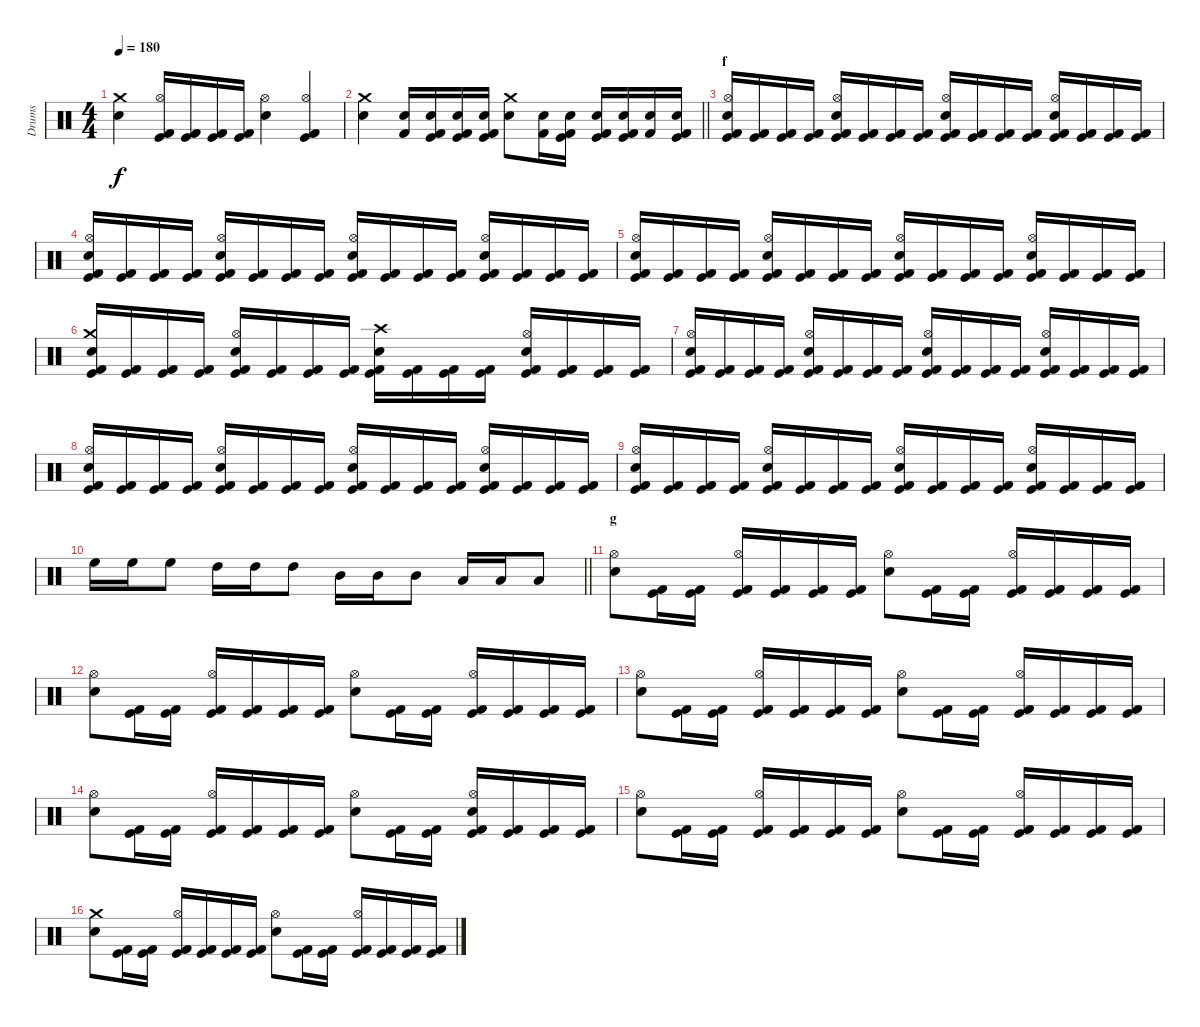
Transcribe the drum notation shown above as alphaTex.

\track ("Drums" "Drums") {instrument percussion}
\staff {score}
\articulation defaults
\ts (4 4)
\tempo 180
\clef neutral
\ks c
("Electric Snare (hit)" "Crash medium (hit)").4{dy f} ("Kick (hit) 2" "Hi-Hat (open)" "Kick (hit)").16 ("Kick (hit) 2" "Kick (hit)").16 ("Kick (hit) 2" "Kick (hit)").16 ("Kick (hit) 2" "Kick (hit)").16 ("Electric Snare (hit)" "Hi-Hat (open)").4 ("Kick (hit) 2" "Hi-Hat (open)" "Kick (hit)").4 |
\barLineRight lightlight
("Electric Snare (hit)" "Crash medium (hit)").4 ("Kick (hit) 2" "Electric Snare (hit)").16 ("Kick (hit) 2" "Electric Snare (hit)" "Kick (hit)").16 ("Kick (hit) 2" "Electric Snare (hit)" "Kick (hit)").16 ("Kick (hit) 2" "Electric Snare (hit)" "Kick (hit)").16 ("Electric Snare (hit)" "Crash medium (hit)").8 ("Kick (hit) 2" "Electric Snare (hit)").16 ("Kick (hit) 2" "Electric Snare (hit)" "Kick (hit)").16 ("Kick (hit) 2" "Electric Snare (hit)" "Kick (hit)").16 ("Kick (hit) 2" "Electric Snare (hit)" "Kick (hit)").16 ("Kick (hit) 2" "Electric Snare (hit)").16 ("Kick (hit) 2" "Electric Snare (hit)" "Kick (hit)").16 |
\section ("" "f")
("Kick (hit)" "Kick (hit) 2" "Hi-Hat (open)" "Electric Snare (hit)").16 ("Kick (hit)" "Kick (hit) 2").16 ("Kick (hit)" "Kick (hit) 2").16 ("Kick (hit)" "Kick (hit) 2").16 ("Kick (hit)" "Kick (hit) 2" "Hi-Hat (open)" "Electric Snare (hit)").16 ("Kick (hit)" "Kick (hit) 2").16 ("Kick (hit)" "Kick (hit) 2").16 ("Kick (hit)" "Kick (hit) 2").16 ("Kick (hit)" "Kick (hit) 2" "Hi-Hat (open)" "Electric Snare (hit)").16 ("Kick (hit)" "Kick (hit) 2").16 ("Kick (hit)" "Kick (hit) 2").16 ("Kick (hit)" "Kick (hit) 2").16 ("Kick (hit)" "Kick (hit) 2" "Hi-Hat (open)" "Electric Snare (hit)").16 ("Kick (hit)" "Kick (hit) 2").16 ("Kick (hit)" "Kick (hit) 2").16 ("Kick (hit)" "Kick (hit) 2").16 |
("Kick (hit)" "Kick (hit) 2" "Hi-Hat (open)" "Electric Snare (hit)").16 ("Kick (hit)" "Kick (hit) 2").16 ("Kick (hit)" "Kick (hit) 2").16 ("Kick (hit)" "Kick (hit) 2").16 ("Kick (hit)" "Kick (hit) 2" "Hi-Hat (open)" "Electric Snare (hit)").16 ("Kick (hit)" "Kick (hit) 2").16 ("Kick (hit)" "Kick (hit) 2").16 ("Kick (hit)" "Kick (hit) 2").16 ("Kick (hit)" "Kick (hit) 2" "Hi-Hat (open)" "Electric Snare (hit)").16 ("Kick (hit)" "Kick (hit) 2").16 ("Kick (hit)" "Kick (hit) 2").16 ("Kick (hit)" "Kick (hit) 2").16 ("Kick (hit)" "Kick (hit) 2" "Hi-Hat (open)" "Electric Snare (hit)").16 ("Kick (hit)" "Kick (hit) 2").16 ("Kick (hit)" "Kick (hit) 2").16 ("Kick (hit)" "Kick (hit) 2").16 |
("Kick (hit)" "Kick (hit) 2" "Hi-Hat (open)" "Electric Snare (hit)").16 ("Kick (hit)" "Kick (hit) 2").16 ("Kick (hit)" "Kick (hit) 2").16 ("Kick (hit)" "Kick (hit) 2").16 ("Kick (hit)" "Kick (hit) 2" "Hi-Hat (open)" "Electric Snare (hit)").16 ("Kick (hit)" "Kick (hit) 2").16 ("Kick (hit)" "Kick (hit) 2").16 ("Kick (hit)" "Kick (hit) 2").16 ("Kick (hit)" "Kick (hit) 2" "Hi-Hat (open)" "Electric Snare (hit)").16 ("Kick (hit)" "Kick (hit) 2").16 ("Kick (hit)" "Kick (hit) 2").16 ("Kick (hit)" "Kick (hit) 2").16 ("Kick (hit)" "Kick (hit) 2" "Hi-Hat (open)" "Electric Snare (hit)").16 ("Kick (hit)" "Kick (hit) 2").16 ("Kick (hit)" "Kick (hit) 2").16 ("Kick (hit)" "Kick (hit) 2").16 |
("Kick (hit)" "Kick (hit) 2" "Crash medium (hit)" "Electric Snare (hit)").16 ("Kick (hit)" "Kick (hit) 2").16 ("Kick (hit)" "Kick (hit) 2").16 ("Kick (hit)" "Kick (hit) 2").16 ("Kick (hit)" "Kick (hit) 2" "Hi-Hat (open)" "Electric Snare (hit)").16 ("Kick (hit)" "Kick (hit) 2").16 ("Kick (hit)" "Kick (hit) 2").16 ("Kick (hit)" "Kick (hit) 2").16 ("Kick (hit)" "Kick (hit) 2" "Crash high (hit)" "Electric Snare (hit)").16 ("Kick (hit)" "Kick (hit) 2").16 ("Kick (hit)" "Kick (hit) 2").16 ("Kick (hit)" "Kick (hit) 2").16 ("Kick (hit)" "Kick (hit) 2" "Hi-Hat (open)" "Electric Snare (hit)").16 ("Kick (hit)" "Kick (hit) 2").16 ("Kick (hit)" "Kick (hit) 2").16 ("Kick (hit)" "Kick (hit) 2").16 |
("Kick (hit)" "Kick (hit) 2" "Hi-Hat (open)" "Electric Snare (hit)").16 ("Kick (hit)" "Kick (hit) 2").16 ("Kick (hit)" "Kick (hit) 2").16 ("Kick (hit)" "Kick (hit) 2").16 ("Kick (hit)" "Kick (hit) 2" "Hi-Hat (open)" "Electric Snare (hit)").16 ("Kick (hit)" "Kick (hit) 2").16 ("Kick (hit)" "Kick (hit) 2").16 ("Kick (hit)" "Kick (hit) 2").16 ("Kick (hit)" "Kick (hit) 2" "Hi-Hat (open)" "Electric Snare (hit)").16 ("Kick (hit)" "Kick (hit) 2").16 ("Kick (hit)" "Kick (hit) 2").16 ("Kick (hit)" "Kick (hit) 2").16 ("Kick (hit)" "Kick (hit) 2" "Hi-Hat (open)" "Electric Snare (hit)").16 ("Kick (hit)" "Kick (hit) 2").16 ("Kick (hit)" "Kick (hit) 2").16 ("Kick (hit)" "Kick (hit) 2").16 |
("Kick (hit)" "Kick (hit) 2" "Hi-Hat (open)" "Electric Snare (hit)").16 ("Kick (hit)" "Kick (hit) 2").16 ("Kick (hit)" "Kick (hit) 2").16 ("Kick (hit)" "Kick (hit) 2").16 ("Kick (hit)" "Kick (hit) 2" "Hi-Hat (open)" "Electric Snare (hit)").16 ("Kick (hit)" "Kick (hit) 2").16 ("Kick (hit)" "Kick (hit) 2").16 ("Kick (hit)" "Kick (hit) 2").16 ("Kick (hit)" "Kick (hit) 2" "Hi-Hat (open)" "Electric Snare (hit)").16 ("Kick (hit)" "Kick (hit) 2").16 ("Kick (hit)" "Kick (hit) 2").16 ("Kick (hit)" "Kick (hit) 2").16 ("Kick (hit)" "Kick (hit) 2" "Hi-Hat (open)" "Electric Snare (hit)").16 ("Kick (hit)" "Kick (hit) 2").16 ("Kick (hit)" "Kick (hit) 2").16 ("Kick (hit)" "Kick (hit) 2").16 |
("Kick (hit)" "Kick (hit) 2" "Hi-Hat (open)" "Electric Snare (hit)").16 ("Kick (hit)" "Kick (hit) 2").16 ("Kick (hit)" "Kick (hit) 2").16 ("Kick (hit)" "Kick (hit) 2").16 ("Kick (hit)" "Kick (hit) 2" "Hi-Hat (open)" "Electric Snare (hit)").16 ("Kick (hit)" "Kick (hit) 2").16 ("Kick (hit)" "Kick (hit) 2").16 ("Kick (hit)" "Kick (hit) 2").16 ("Kick (hit)" "Kick (hit) 2" "Hi-Hat (open)" "Electric Snare (hit)").16 ("Kick (hit)" "Kick (hit) 2").16 ("Kick (hit)" "Kick (hit) 2").16 ("Kick (hit)" "Kick (hit) 2").16 ("Kick (hit)" "Kick (hit) 2" "Hi-Hat (open)" "Electric Snare (hit)").16 ("Kick (hit)" "Kick (hit) 2").16 ("Kick (hit)" "Kick (hit) 2").16 ("Kick (hit)" "Kick (hit) 2").16 |
\barLineRight lightlight "High Floor Tom (hit)".16 "High Floor Tom (hit)".16 "High Floor Tom (hit)".8 "High Tom (hit)".16 "High Tom (hit)".16 "High Tom (hit)".8 "Mid Tom (hit)".16 "Mid Tom (hit)".16 "Mid Tom (hit)".8 "Low Tom (hit)".16 "Low Tom (hit)".16 "Low Tom (hit)".8
|
\section ("" "g")
("Hi-Hat (open)" "Electric Snare (hit)").8 ("Kick (hit) 2" "Kick (hit)").16 ("Kick (hit) 2" "Kick (hit)").16 ("Kick (hit) 2" "Hi-Hat (open)" "Kick (hit)").16 ("Kick (hit) 2" "Kick (hit)").16 ("Kick (hit) 2" "Kick (hit)").16 ("Kick (hit) 2" "Kick (hit)").16 ("Hi-Hat (open)" "Electric Snare (hit)").8 ("Kick (hit) 2" "Kick (hit)").16 ("Kick (hit) 2" "Kick (hit)").16 ("Kick (hit) 2" "Hi-Hat (open)" "Kick (hit)").16 ("Kick (hit) 2" "Kick (hit)").16 ("Kick (hit) 2" "Kick (hit)").16 ("Kick (hit) 2" "Kick (hit)").16 |
("Hi-Hat (open)" "Electric Snare (hit)").8 ("Kick (hit) 2" "Kick (hit)").16 ("Kick (hit) 2" "Kick (hit)").16 ("Kick (hit) 2" "Hi-Hat (open)" "Kick (hit)").16 ("Kick (hit) 2" "Kick (hit)").16 ("Kick (hit) 2" "Kick (hit)").16 ("Kick (hit) 2" "Kick (hit)").16 ("Hi-Hat (open)" "Electric Snare (hit)").8 ("Kick (hit) 2" "Kick (hit)").16 ("Kick (hit) 2" "Kick (hit)").16 ("Kick (hit) 2" "Hi-Hat (open)" "Kick (hit)").16 ("Kick (hit) 2" "Kick (hit)").16 ("Kick (hit) 2" "Kick (hit)").16 ("Kick (hit) 2" "Kick (hit)").16 |
("Hi-Hat (open)" "Electric Snare (hit)").8 ("Kick (hit) 2" "Kick (hit)").16 ("Kick (hit) 2" "Kick (hit)").16 ("Kick (hit) 2" "Hi-Hat (open)" "Kick (hit)").16 ("Kick (hit) 2" "Kick (hit)").16 ("Kick (hit) 2" "Kick (hit)").16 ("Kick (hit) 2" "Kick (hit)").16 ("Hi-Hat (open)" "Electric Snare (hit)").8 ("Kick (hit) 2" "Kick (hit)").16 ("Kick (hit) 2" "Kick (hit)").16 ("Kick (hit) 2" "Hi-Hat (open)" "Kick (hit)").16 ("Kick (hit) 2" "Kick (hit)").16 ("Kick (hit) 2" "Kick (hit)").16 ("Kick (hit) 2" "Kick (hit)").16 |
("Hi-Hat (open)" "Electric Snare (hit)").8 ("Kick (hit) 2" "Kick (hit)").16 ("Kick (hit) 2" "Kick (hit)").16 ("Kick (hit) 2" "Hi-Hat (open)" "Kick (hit)").16 ("Kick (hit) 2" "Kick (hit)").16 ("Kick (hit) 2" "Kick (hit)").16 ("Kick (hit) 2" "Kick (hit)").16 ("Hi-Hat (open)" "Electric Snare (hit)").8 ("Kick (hit) 2" "Kick (hit)").16 ("Kick (hit) 2" "Kick (hit)").16 ("Kick (hit) 2" "Hi-Hat (open)" "Kick (hit)" "Electric Snare (hit)").16 ("Kick (hit) 2" "Kick (hit)").16 ("Kick (hit) 2" "Kick (hit)").16 ("Kick (hit) 2" "Kick (hit)").16 |
("Hi-Hat (open)" "Electric Snare (hit)").8 ("Kick (hit) 2" "Kick (hit)").16 ("Kick (hit) 2" "Kick (hit)").16 ("Kick (hit) 2" "Hi-Hat (open)" "Kick (hit)").16 ("Kick (hit) 2" "Kick (hit)").16 ("Kick (hit) 2" "Kick (hit)").16 ("Kick (hit) 2" "Kick (hit)").16 ("Hi-Hat (open)" "Electric Snare (hit)").8 ("Kick (hit) 2" "Kick (hit)").16 ("Kick (hit) 2" "Kick (hit)").16 ("Kick (hit) 2" "Hi-Hat (open)" "Kick (hit)").16 ("Kick (hit) 2" "Kick (hit)").16 ("Kick (hit) 2" "Kick (hit)").16 ("Kick (hit) 2" "Kick (hit)").16 |
("Crash medium (hit)" "Electric Snare (hit)").8 ("Kick (hit) 2" "Kick (hit)").16 ("Kick (hit) 2" "Kick (hit)").16 ("Kick (hit) 2" "Hi-Hat (open)" "Kick (hit)").16 ("Kick (hit) 2" "Kick (hit)").16 ("Kick (hit) 2" "Kick (hit)").16 ("Kick (hit) 2" "Kick (hit)").16 ("Hi-Hat (open)" "Electric Snare (hit)").8 ("Kick (hit) 2" "Kick (hit)").16 ("Kick (hit) 2" "Kick (hit)").16 ("Kick (hit) 2" "Hi-Hat (open)" "Kick (hit)").16 ("Kick (hit) 2" "Kick (hit)").16 ("Kick (hit) 2" "Kick (hit)").16 ("Kick (hit) 2" "Kick (hit)").16
